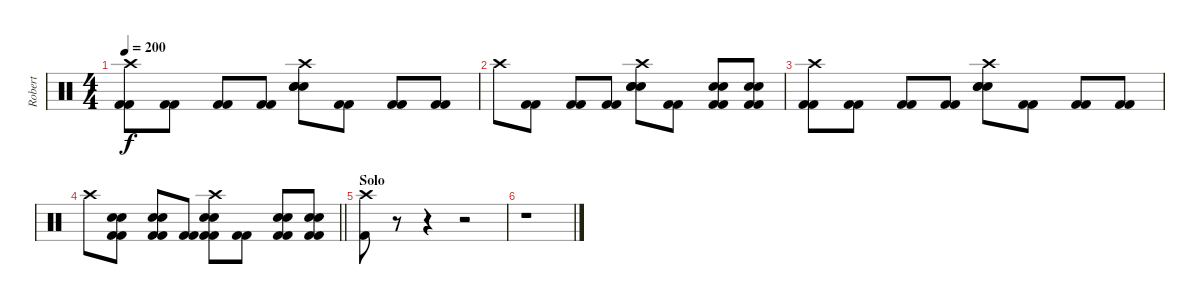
\track ("Robert" "Robert") {instrument percussion}
\staff {score}
\articulation defaults
\ts (4 4)
\tempo 200
\clef neutral
\ks c
("Crash high (hit)" "Kick (hit) 2" "Kick (hit) 2").8{dy f} ("Kick (hit) 2" "Kick (hit) 2").8 ("Kick (hit) 2" "Kick (hit) 2").8 ("Kick (hit) 2" "Kick (hit) 2").8 ("Crash high (hit)" "Electric Snare (hit)" "Electric Snare (hit)" "Electric Snare (hit)").8 ("Kick (hit) 2" "Kick (hit) 2").8 ("Kick (hit) 2" "Kick (hit) 2").8 ("Kick (hit) 2" "Kick (hit) 2").8 |
"Crash high (hit)".8 ("Kick (hit) 2" "Kick (hit) 2").8 ("Kick (hit) 2" "Kick (hit) 2").8 ("Kick (hit) 2" "Kick (hit) 2").8 ("Crash high (hit)" "Electric Snare (hit)" "Electric Snare (hit)" "Electric Snare (hit)").8 ("Kick (hit) 2" "Kick (hit) 2").8 ("Electric Snare (hit)" "Electric Snare (hit)" "Kick (hit) 2" "Kick (hit) 2").8 ("Electric Snare (hit)" "Electric Snare (hit)" "Kick (hit) 2" "Kick (hit) 2").8 |
("Crash high (hit)" "Kick (hit) 2" "Kick (hit) 2").8 ("Kick (hit) 2" "Kick (hit) 2").8 ("Kick (hit) 2" "Kick (hit) 2").8 ("Kick (hit) 2" "Kick (hit) 2").8 ("Crash high (hit)" "Electric Snare (hit)" "Electric Snare (hit)" "Electric Snare (hit)").8 ("Kick (hit) 2" "Kick (hit) 2").8 ("Kick (hit) 2" "Kick (hit) 2").8 ("Kick (hit) 2" "Kick (hit) 2").8 |
\barLineRight lightlight "Crash high (hit)".8
("Electric Snare (hit)" "Electric Snare (hit)" "Kick (hit) 2" "Kick (hit) 2").8 ("Electric Snare (hit)" "Electric Snare (hit)" "Kick (hit) 2" "Kick (hit) 2").8 ("Kick (hit) 2" "Kick (hit) 2").8 ("Crash high (hit)" "Electric Snare (hit)" "Electric Snare (hit)" "Kick (hit) 2" "Kick (hit) 2").8 ("Kick (hit) 2" "Kick (hit) 2").8 ("Electric Snare (hit)" "Electric Snare (hit)" "Kick (hit) 2" "Kick (hit) 2").8 ("Electric Snare (hit)" "Electric Snare (hit)" "Kick (hit) 2" "Kick (hit) 2").8 |
\section ("" "Solo")
("Crash high (hit)" "Kick (hit) 2").8 r.8 r.4 r.2 |
r.1
